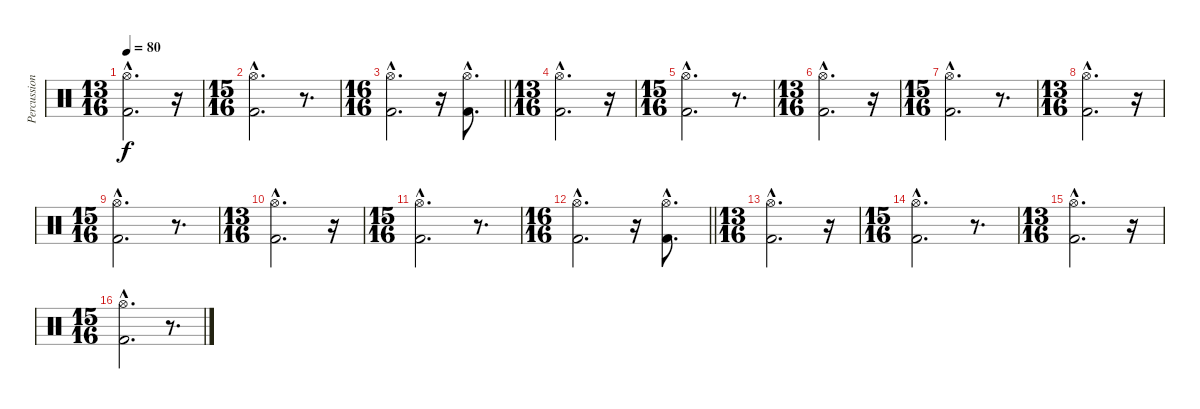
\track ("Percussion" "Percussion") {instrument percussion}
\staff {score}
\articulation defaults
\ts (13 16)
\tempo 80
\clef neutral
\ks c
("Hi-Hat (open)"{hac} "Kick (hit) 2"{hac}).2{d dy f} r.16 |
\ts (15 16)
("Hi-Hat (open)"{hac} "Kick (hit) 2"{hac}).2{d} r.8{d} |
\ts (16 16)
\barLineRight lightlight
("Hi-Hat (open)"{hac} "Kick (hit) 2"{hac}).2{d} r.16 ("Hi-Hat (open)"{hac} "Kick (hit) 2"{hac}).8{d} |
\ts (13 16)
\section ("" "")
("Hi-Hat (open)"{hac} "Kick (hit) 2"{hac}).2{d} r.16 |
\ts (15 16)
("Hi-Hat (open)"{hac} "Kick (hit) 2"{hac}).2{d} r.8{d} |
\ts (13 16)
("Hi-Hat (open)"{hac} "Kick (hit) 2"{hac}).2{d} r.16 |
\ts (15 16)
("Hi-Hat (open)"{hac} "Kick (hit) 2"{hac}).2{d} r.8{d} |
\ts (13 16)
("Hi-Hat (open)"{hac} "Kick (hit) 2"{hac}).2{d} r.16 |
\ts (15 16)
("Hi-Hat (open)"{hac} "Kick (hit) 2"{hac}).2{d} r.8{d} |
\ts (13 16)
("Hi-Hat (open)"{hac} "Kick (hit) 2"{hac}).2{d} r.16 |
\ts (15 16)
("Hi-Hat (open)"{hac} "Kick (hit) 2"{hac}).2{d} r.8{d} |
\ts (16 16)
\barLineRight lightlight
("Hi-Hat (open)"{hac} "Kick (hit) 2"{hac}).2{d} r.16 ("Hi-Hat (open)"{hac} "Kick (hit) 2"{hac}).8{d} |
\ts (13 16)
\section ("" "")
("Hi-Hat (open)"{hac} "Kick (hit) 2"{hac}).2{d} r.16 |
\ts (15 16)
("Hi-Hat (open)"{hac} "Kick (hit) 2"{hac}).2{d} r.8{d} |
\ts (13 16)
("Hi-Hat (open)"{hac} "Kick (hit) 2"{hac}).2{d} r.16 |
\ts (15 16)
("Hi-Hat (open)"{hac} "Kick (hit) 2"{hac}).2{d} r.8{d}
